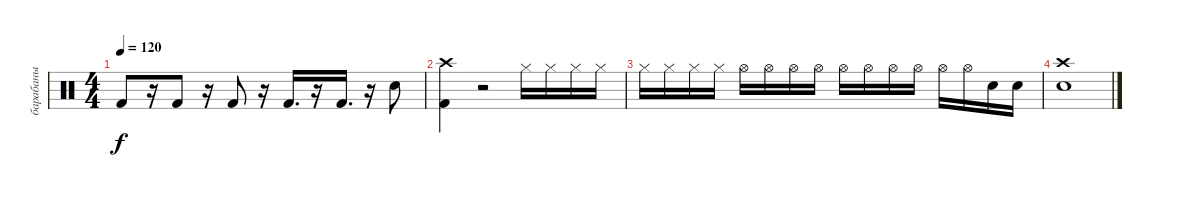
\track ("барабаны" "барабаны") {instrument percussion}
\staff {score}
\articulation defaults
\ts (4 4)
\tempo 120
\clef neutral
\ks c "Kick (hit) 2".8{dy f}
r.16 "Kick (hit) 2".8 r.16 "Kick (hit) 2".8 r.16 "Kick (hit) 2".16{d} r.16 "Kick (hit) 2".16{d} r.16 "Snare (hit) 2".8 |
("Crash high (hit)" "Kick (hit) 2").4 r.2 "Hi-Hat (closed)".16 "Hi-Hat (closed)".16 "Hi-Hat (closed)".16 "Hi-Hat (closed)".16 |
"Hi-Hat (closed)".16 "Hi-Hat (closed)".16 "Hi-Hat (closed)".16 "Hi-Hat (closed)".16 "Hi-Hat (open)".16 "Hi-Hat (open)".16 "Hi-Hat (open)".16 "Hi-Hat (open)".16 "Hi-Hat (open)".16 "Hi-Hat (open)".16 "Hi-Hat (open)".16 "Hi-Hat (open)".16 "Hi-Hat (open)".16 "Hi-Hat (open)".16 "Snare (hit) 2".16 "Snare (hit) 2".16 |
("Crash high (hit)" "Snare (hit) 2").1
